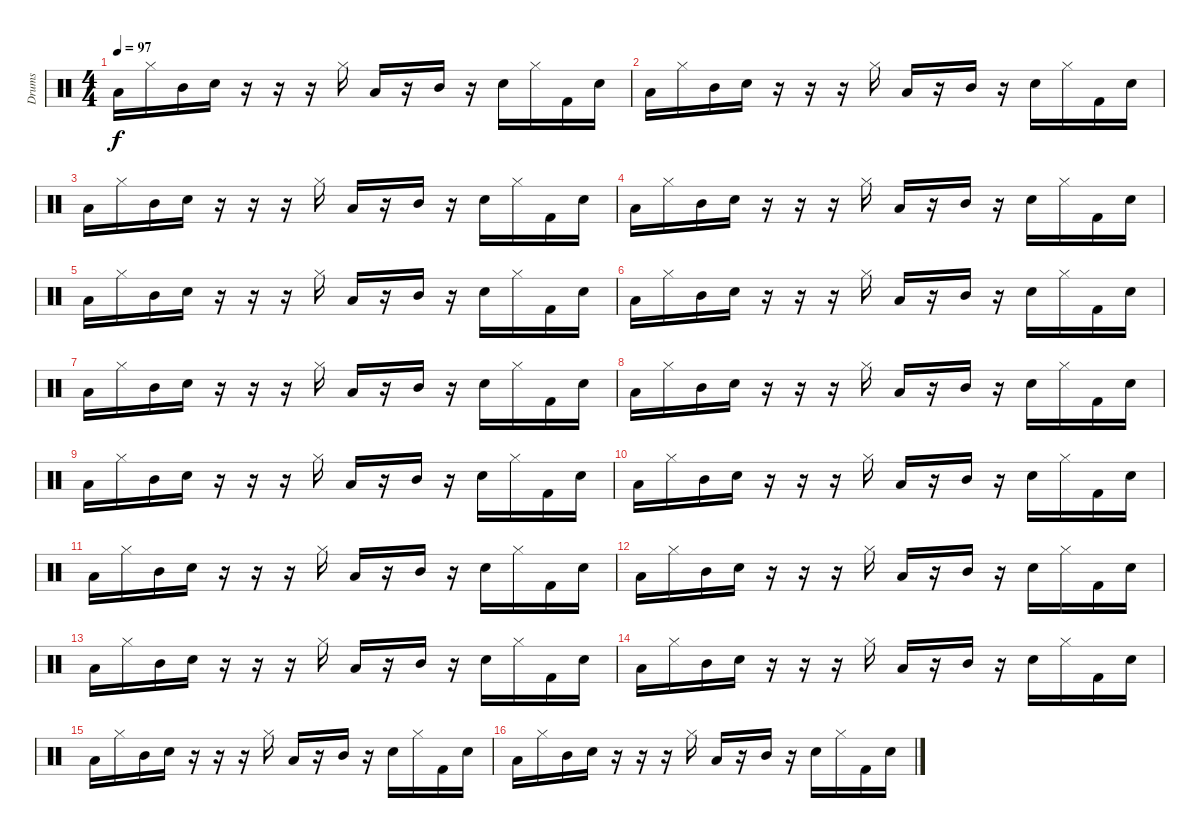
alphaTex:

\track ("Drums" "Drums") {instrument percussion}
\staff {score}
\articulation defaults
\ts (4 4)
\tempo 97
\clef neutral
\ks c "Low Tom (hit)".16{dy f} "Hi-Hat (closed)".16 "Mid Tom (hit)".16 "Snare (hit) 2".16
r.16 r.16 r.16 "Hi-Hat (closed)".16 "Low Tom (hit)".16 r.16 "Mid Tom (hit)".16 r.16 "Snare (hit) 2".16 "Hi-Hat (closed)".16 "Kick (hit) 2".16 "Snare (hit) 2".16 |
"Low Tom (hit)".16 "Hi-Hat (closed)".16 "Mid Tom (hit)".16 "Snare (hit) 2".16 r.16 r.16 r.16 "Hi-Hat (closed)".16 "Low Tom (hit)".16 r.16 "Mid Tom (hit)".16 r.16 "Snare (hit) 2".16 "Hi-Hat (closed)".16 "Kick (hit) 2".16 "Snare (hit) 2".16 |
"Low Tom (hit)".16 "Hi-Hat (closed)".16 "Mid Tom (hit)".16 "Snare (hit) 2".16 r.16 r.16 r.16 "Hi-Hat (closed)".16 "Low Tom (hit)".16 r.16 "Mid Tom (hit)".16 r.16 "Snare (hit) 2".16 "Hi-Hat (closed)".16 "Kick (hit) 2".16 "Snare (hit) 2".16 |
"Low Tom (hit)".16 "Hi-Hat (closed)".16 "Mid Tom (hit)".16 "Snare (hit) 2".16 r.16 r.16 r.16 "Hi-Hat (closed)".16 "Low Tom (hit)".16 r.16 "Mid Tom (hit)".16 r.16 "Snare (hit) 2".16 "Hi-Hat (closed)".16 "Kick (hit) 2".16 "Snare (hit) 2".16 |
"Low Tom (hit)".16 "Hi-Hat (closed)".16 "Mid Tom (hit)".16 "Snare (hit) 2".16 r.16 r.16 r.16 "Hi-Hat (closed)".16 "Low Tom (hit)".16 r.16 "Mid Tom (hit)".16 r.16 "Snare (hit) 2".16 "Hi-Hat (closed)".16 "Kick (hit) 2".16 "Snare (hit) 2".16 |
"Low Tom (hit)".16 "Hi-Hat (closed)".16 "Mid Tom (hit)".16 "Snare (hit) 2".16 r.16 r.16 r.16 "Hi-Hat (closed)".16 "Low Tom (hit)".16 r.16 "Mid Tom (hit)".16 r.16 "Snare (hit) 2".16 "Hi-Hat (closed)".16 "Kick (hit) 2".16 "Snare (hit) 2".16 |
"Low Tom (hit)".16 "Hi-Hat (closed)".16 "Mid Tom (hit)".16 "Snare (hit) 2".16 r.16 r.16 r.16 "Hi-Hat (closed)".16 "Low Tom (hit)".16 r.16 "Mid Tom (hit)".16 r.16 "Snare (hit) 2".16 "Hi-Hat (closed)".16 "Kick (hit) 2".16 "Snare (hit) 2".16 |
"Low Tom (hit)".16 "Hi-Hat (closed)".16 "Mid Tom (hit)".16 "Snare (hit) 2".16 r.16 r.16 r.16 "Hi-Hat (closed)".16 "Low Tom (hit)".16 r.16 "Mid Tom (hit)".16 r.16 "Snare (hit) 2".16 "Hi-Hat (closed)".16 "Kick (hit) 2".16 "Snare (hit) 2".16 |
"Low Tom (hit)".16 "Hi-Hat (closed)".16 "Mid Tom (hit)".16 "Snare (hit) 2".16 r.16 r.16 r.16 "Hi-Hat (closed)".16 "Low Tom (hit)".16 r.16 "Mid Tom (hit)".16 r.16 "Snare (hit) 2".16 "Hi-Hat (closed)".16 "Kick (hit) 2".16 "Snare (hit) 2".16 |
"Low Tom (hit)".16 "Hi-Hat (closed)".16 "Mid Tom (hit)".16 "Snare (hit) 2".16 r.16 r.16 r.16 "Hi-Hat (closed)".16 "Low Tom (hit)".16 r.16 "Mid Tom (hit)".16 r.16 "Snare (hit) 2".16 "Hi-Hat (closed)".16 "Kick (hit) 2".16 "Snare (hit) 2".16 |
"Low Tom (hit)".16 "Hi-Hat (closed)".16 "Mid Tom (hit)".16 "Snare (hit) 2".16 r.16 r.16 r.16 "Hi-Hat (closed)".16 "Low Tom (hit)".16 r.16 "Mid Tom (hit)".16 r.16 "Snare (hit) 2".16 "Hi-Hat (closed)".16 "Kick (hit) 2".16 "Snare (hit) 2".16 |
"Low Tom (hit)".16 "Hi-Hat (closed)".16 "Mid Tom (hit)".16 "Snare (hit) 2".16 r.16 r.16 r.16 "Hi-Hat (closed)".16 "Low Tom (hit)".16 r.16 "Mid Tom (hit)".16 r.16 "Snare (hit) 2".16 "Hi-Hat (closed)".16 "Kick (hit) 2".16 "Snare (hit) 2".16 |
"Low Tom (hit)".16 "Hi-Hat (closed)".16 "Mid Tom (hit)".16 "Snare (hit) 2".16 r.16 r.16 r.16 "Hi-Hat (closed)".16 "Low Tom (hit)".16 r.16 "Mid Tom (hit)".16 r.16 "Snare (hit) 2".16 "Hi-Hat (closed)".16 "Kick (hit) 2".16 "Snare (hit) 2".16 |
"Low Tom (hit)".16 "Hi-Hat (closed)".16 "Mid Tom (hit)".16 "Snare (hit) 2".16 r.16 r.16 r.16 "Hi-Hat (closed)".16 "Low Tom (hit)".16 r.16 "Mid Tom (hit)".16 r.16 "Snare (hit) 2".16 "Hi-Hat (closed)".16 "Kick (hit) 2".16 "Snare (hit) 2".16 |
"Low Tom (hit)".16 "Hi-Hat (closed)".16 "Mid Tom (hit)".16 "Snare (hit) 2".16 r.16 r.16 r.16 "Hi-Hat (closed)".16 "Low Tom (hit)".16 r.16 "Mid Tom (hit)".16 r.16 "Snare (hit) 2".16 "Hi-Hat (closed)".16 "Kick (hit) 2".16 "Snare (hit) 2".16 |
"Low Tom (hit)".16 "Hi-Hat (closed)".16 "Mid Tom (hit)".16 "Snare (hit) 2".16 r.16 r.16 r.16 "Hi-Hat (closed)".16 "Low Tom (hit)".16 r.16 "Mid Tom (hit)".16 r.16 "Snare (hit) 2".16 "Hi-Hat (closed)".16 "Kick (hit) 2".16 "Snare (hit) 2".16
